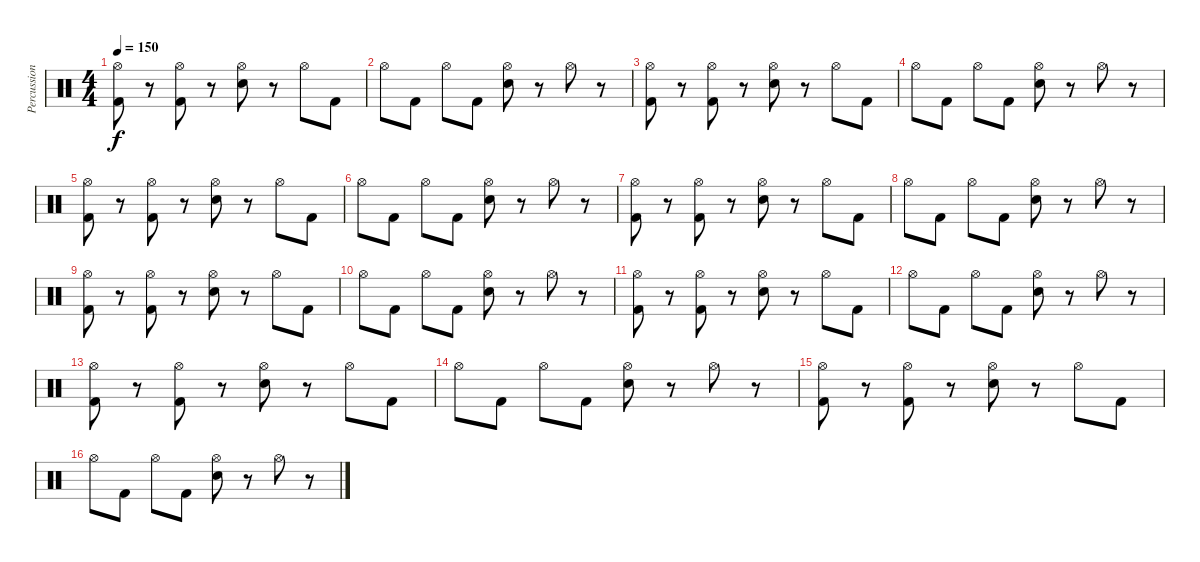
\track ("Percussion" "Percussion") {instrument percussion}
\staff {score}
\articulation defaults
\ts (4 4)
\tempo 150
\clef neutral
\ks c
("Hi-Hat (open)" "Kick (hit) 2").8{dy f} r.8 ("Hi-Hat (open)" "Kick (hit) 2").8 r.8 ("Hi-Hat (open)" "Snare (hit) 2").8 r.8 "Hi-Hat (open)".8 "Kick (hit) 2".8 |
"Hi-Hat (open)".8 "Kick (hit) 2".8 "Hi-Hat (open)".8 "Kick (hit) 2".8 ("Hi-Hat (open)" "Snare (hit) 2").8 r.8 "Hi-Hat (open)".8 r.8 |
("Hi-Hat (open)" "Kick (hit) 2").8 r.8 ("Hi-Hat (open)" "Kick (hit) 2").8 r.8 ("Hi-Hat (open)" "Snare (hit) 2").8 r.8 "Hi-Hat (open)".8 "Kick (hit) 2".8 |
"Hi-Hat (open)".8 "Kick (hit) 2".8 "Hi-Hat (open)".8 "Kick (hit) 2".8 ("Hi-Hat (open)" "Snare (hit) 2").8 r.8 "Hi-Hat (open)".8 r.8 |
("Hi-Hat (open)" "Kick (hit) 2").8 r.8 ("Hi-Hat (open)" "Kick (hit) 2").8 r.8 ("Hi-Hat (open)" "Snare (hit) 2").8 r.8 "Hi-Hat (open)".8 "Kick (hit) 2".8 |
"Hi-Hat (open)".8 "Kick (hit) 2".8 "Hi-Hat (open)".8 "Kick (hit) 2".8 ("Hi-Hat (open)" "Snare (hit) 2").8 r.8 "Hi-Hat (open)".8 r.8 |
("Hi-Hat (open)" "Kick (hit) 2").8 r.8 ("Hi-Hat (open)" "Kick (hit) 2").8 r.8 ("Hi-Hat (open)" "Snare (hit) 2").8 r.8 "Hi-Hat (open)".8 "Kick (hit) 2".8 |
"Hi-Hat (open)".8 "Kick (hit) 2".8 "Hi-Hat (open)".8 "Kick (hit) 2".8 ("Hi-Hat (open)" "Snare (hit) 2").8 r.8 "Hi-Hat (open)".8 r.8 |
("Hi-Hat (open)" "Kick (hit) 2").8 r.8 ("Hi-Hat (open)" "Kick (hit) 2").8 r.8 ("Hi-Hat (open)" "Snare (hit) 2").8 r.8 "Hi-Hat (open)".8 "Kick (hit) 2".8 |
"Hi-Hat (open)".8 "Kick (hit) 2".8 "Hi-Hat (open)".8 "Kick (hit) 2".8 ("Hi-Hat (open)" "Snare (hit) 2").8 r.8 "Hi-Hat (open)".8 r.8 |
("Hi-Hat (open)" "Kick (hit) 2").8 r.8 ("Hi-Hat (open)" "Kick (hit) 2").8 r.8 ("Hi-Hat (open)" "Snare (hit) 2").8 r.8 "Hi-Hat (open)".8 "Kick (hit) 2".8 |
"Hi-Hat (open)".8 "Kick (hit) 2".8 "Hi-Hat (open)".8 "Kick (hit) 2".8 ("Hi-Hat (open)" "Snare (hit) 2").8 r.8 "Hi-Hat (open)".8 r.8 |
("Hi-Hat (open)" "Kick (hit) 2").8 r.8 ("Hi-Hat (open)" "Kick (hit) 2").8 r.8 ("Hi-Hat (open)" "Snare (hit) 2").8 r.8 "Hi-Hat (open)".8 "Kick (hit) 2".8 |
"Hi-Hat (open)".8 "Kick (hit) 2".8 "Hi-Hat (open)".8 "Kick (hit) 2".8 ("Hi-Hat (open)" "Snare (hit) 2").8 r.8 "Hi-Hat (open)".8 r.8 |
("Hi-Hat (open)" "Kick (hit) 2").8 r.8 ("Hi-Hat (open)" "Kick (hit) 2").8 r.8 ("Hi-Hat (open)" "Snare (hit) 2").8 r.8 "Hi-Hat (open)".8 "Kick (hit) 2".8 |
"Hi-Hat (open)".8 "Kick (hit) 2".8 "Hi-Hat (open)".8 "Kick (hit) 2".8 ("Hi-Hat (open)" "Snare (hit) 2").8 r.8 "Hi-Hat (open)".8 r.8
